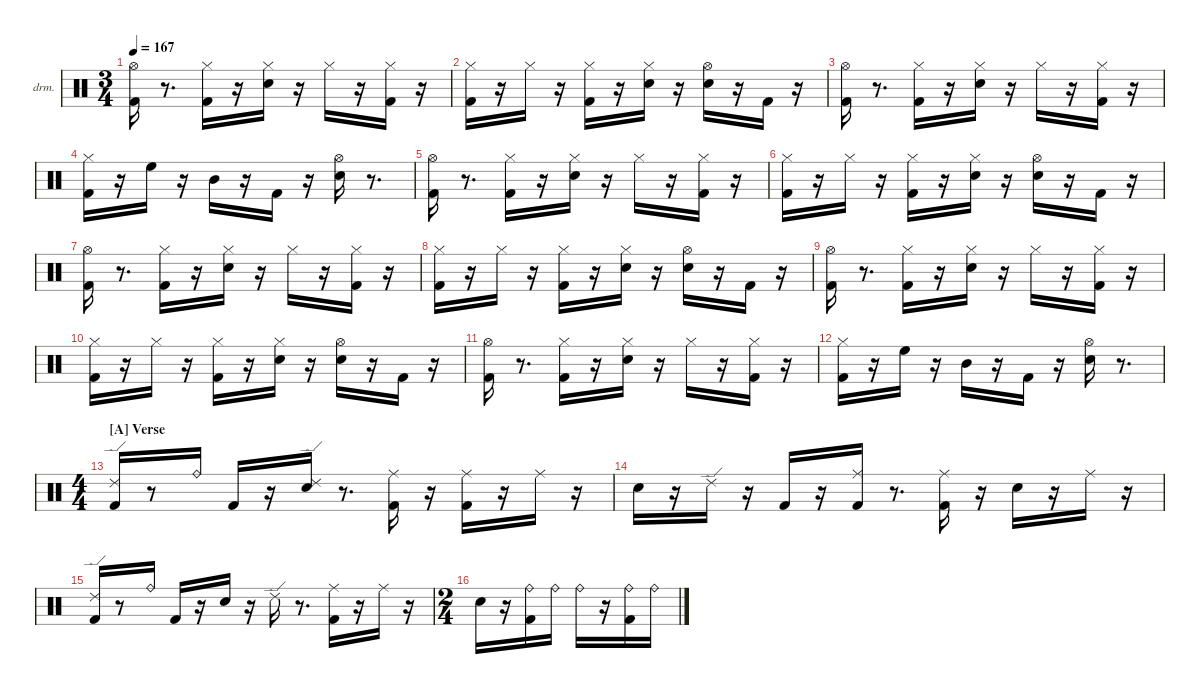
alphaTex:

\hideDynamics
\bracketExtendMode nobrackets
\firstSystemTrackNameOrientation horizontal
\otherSystemsTrackNameOrientation horizontal
\track ("Drums" "drm.") {instrument percussion}
\staff {score}
\articulation defaults
\ts (3 4)
\tempo 167
\clef neutral
\ks aminor
("Kick (hit) 2" "Hi-Hat (open)"{acc #}).16{dy ff beam Down} r.8{d beam Down} ("Kick (hit) 2" "Hi-Hat (closed)"{acc #}).16{dy f beam Down} r.16{beam Down} ("Snare (hit) 2" "Hi-Hat (closed)"{acc #}).16{dy ff beam Down} r.16{beam Down} "Hi-Hat (closed)"{acc #}.16{beam Down} r.16{beam Down} ("Kick (hit) 2" "Hi-Hat (closed)"{acc #}).16{dy mf beam Down} r.16{beam Down} |
("Kick (hit) 2" "Hi-Hat (closed)"{acc #}).16{dy fff beam Down} r.16{beam Down} "Hi-Hat (closed)"{acc #}.16{dy p beam Down} r.16{beam Down} ("Kick (hit) 2" "Hi-Hat (closed)"{acc #}).16{dy ff beam Down} r.16{beam Down} ("Snare (hit) 2" "Hi-Hat (closed)"{acc #}).16{beam Down} r.16{beam Down} ("Snare (hit) 2" "Hi-Hat (open)"{acc #}).16{dy ppp beam Down} r.16{beam Down} "Kick (hit) 2".16{dy ff beam Up} r.16{beam Up} |
("Kick (hit) 2" "Hi-Hat (open)"{acc #}).16{beam Down} r.8{d beam Down} ("Kick (hit) 2" "Hi-Hat (closed)"{acc #}).16{dy f beam Down} r.16{beam Down} ("Snare (hit) 2" "Hi-Hat (closed)"{acc #}).16{dy ff beam Down} r.16{beam Down} "Hi-Hat (closed)"{acc #}.16{beam Down} r.16{beam Down} ("Kick (hit) 2" "Hi-Hat (closed)"{acc #}).16{dy mf beam Down} r.16{beam Down} |
("Kick (hit) 2" "Hi-Hat (closed)"{acc #}).16{dy fff beam Down} r.16{beam Down} "High Floor Tom (hit)".16{dy ff beam Down} r.16{beam Down} "Mid Tom (hit)".16{beam Down} r.16{beam Down} "Kick (hit) 2".16{beam Up} r.16{beam Up} ("Snare (hit) 2" "Hi-Hat (open)"{acc #}).16{beam Down} r.8{d beam Down} |
("Kick (hit) 2" "Hi-Hat (open)"{acc #}).16{beam Down} r.8{d beam Down} ("Kick (hit) 2" "Hi-Hat (closed)"{acc #}).16{dy f beam Down} r.16{beam Down} ("Snare (hit) 2" "Hi-Hat (closed)"{acc #}).16{dy ff beam Down} r.16{beam Down} "Hi-Hat (closed)"{acc #}.16{beam Down} r.16{beam Down} ("Kick (hit) 2" "Hi-Hat (closed)"{acc #}).16{dy mf beam Down} r.16{beam Down} |
("Kick (hit) 2" "Hi-Hat (closed)"{acc #}).16{dy fff beam Down} r.16{beam Down} "Hi-Hat (closed)"{acc #}.16{dy p beam Down} r.16{beam Down} ("Kick (hit) 2" "Hi-Hat (closed)"{acc #}).16{dy ff beam Down} r.16{beam Down} ("Snare (hit) 2" "Hi-Hat (closed)"{acc #}).16{beam Down} r.16{beam Down} ("Snare (hit) 2" "Hi-Hat (open)"{acc #}).16{dy ppp beam Down} r.16{beam Down} "Kick (hit) 2".16{dy ff beam Up} r.16{beam Up} |
("Kick (hit) 2" "Hi-Hat (open)"{acc #}).16{beam Down} r.8{d beam Down} ("Kick (hit) 2" "Hi-Hat (closed)"{acc #}).16{dy f beam Down} r.16{beam Down} ("Snare (hit) 2" "Hi-Hat (closed)"{acc #}).16{dy ff beam Down} r.16{beam Down} "Hi-Hat (closed)"{acc #}.16{beam Down} r.16{beam Down} ("Kick (hit) 2" "Hi-Hat (closed)"{acc #}).16{dy mf beam Down} r.16{beam Down} |
("Kick (hit) 2" "Hi-Hat (closed)"{acc #}).16{dy fff beam Down} r.16{beam Down} "Hi-Hat (closed)"{acc #}.16{dy p beam Down} r.16{beam Down} ("Kick (hit) 2" "Hi-Hat (closed)"{acc #}).16{dy ff beam Down} r.16{beam Down} ("Snare (hit) 2" "Hi-Hat (closed)"{acc #}).16{beam Down} r.16{beam Down} ("Snare (hit) 2" "Hi-Hat (open)"{acc #}).16{dy ppp beam Down} r.16{beam Down} "Kick (hit) 2".16{dy ff beam Up} r.16{beam Up} |
("Kick (hit) 2" "Hi-Hat (open)"{acc #}).16{beam Down} r.8{d beam Down} ("Kick (hit) 2" "Hi-Hat (closed)"{acc #}).16{dy f beam Down} r.16{beam Down} ("Snare (hit) 2" "Hi-Hat (closed)"{acc #}).16{dy ff beam Down} r.16{beam Down} "Hi-Hat (closed)"{acc #}.16{beam Down} r.16{beam Down} ("Kick (hit) 2" "Hi-Hat (closed)"{acc #}).16{dy mf beam Down} r.16{beam Down} |
("Kick (hit) 2" "Hi-Hat (closed)"{acc #}).16{dy fff beam Down} r.16{beam Down} "Hi-Hat (closed)"{acc #}.16{dy p beam Down} r.16{beam Down} ("Kick (hit) 2" "Hi-Hat (closed)"{acc #}).16{dy ff beam Down} r.16{beam Down} ("Snare (hit) 2" "Hi-Hat (closed)"{acc #}).16{beam Down} r.16{beam Down} ("Snare (hit) 2" "Hi-Hat (open)"{acc #}).16{dy ppp beam Down} r.16{beam Down} "Kick (hit) 2".16{dy ff beam Up} r.16{beam Up} |
("Kick (hit) 2" "Hi-Hat (open)"{acc #}).16{beam Down} r.8{d beam Down} ("Kick (hit) 2" "Hi-Hat (closed)"{acc #}).16{dy f beam Down} r.16{beam Down} ("Snare (hit) 2" "Hi-Hat (closed)"{acc #}).16{dy ff beam Down} r.16{beam Down} "Hi-Hat (closed)"{acc #}.16{beam Down} r.16{beam Down} ("Kick (hit) 2" "Hi-Hat (closed)"{acc #}).16{dy mf beam Down} r.16{beam Down} |
("Kick (hit) 2" "Hi-Hat (closed)"{acc #}).16{dy fff beam Down} r.16{beam Down} "High Floor Tom (hit)".16{dy ff beam Down} r.16{beam Down} "Mid Tom (hit)".16{beam Down} r.16{beam Down} "Kick (hit) 2".16{beam Up} r.16{beam Up} ("Snare (hit) 2" "Hi-Hat (open)"{acc #}).16{beam Down} r.8{d beam Down} |
\ts (4 4)
\section ("A" "Verse")
("Kick (hit) 2" "Ride (edge) 2").16{beam Up} r.8{beam Up} "Ride (bell)".16{dy mf beam Down} "Kick (hit) 2".16{dy ff beam Up} r.16{beam Up} ("Snare (hit) 2" "Ride (edge) 2").16{beam Down} r.8{d beam Down} ("Kick (hit) 2" "Ride (middle)"{acc #}).16{dy mf beam Down} r.16{beam Down} ("Kick (hit) 2" "Ride (middle)"{acc #}).16{dy ff beam Down} r.16{beam Down} "Ride (middle)"{acc #}.16{dy mp beam Down} r.16{beam Down} |
"Snare (hit) 2".16{dy ff beam Down} r.16{beam Down} "Ride (edge) 2".16{dy f beam Down} r.16{beam Down} "Kick (hit) 2".16{dy mf beam Up} r.16{beam Up} ("Kick (hit) 2" "Ride (middle)"{acc #}).16{dy ff beam Down} r.8{d beam Down} ("Kick (hit) 2" "Ride (middle)"{acc #}).16{beam Down} r.16{beam Down} "Snare (hit) 2".16{beam Down} r.16{beam Down} "Ride (middle)"{acc #}.16{beam Down} r.16{beam Down} |
("Kick (hit) 2" "Ride (edge) 2").16{beam Up} r.8{beam Up} "Ride (bell)".16{dy mf beam Down} "Kick (hit) 2".16{dy ff beam Up} r.16{beam Up} "Snare (hit) 2".16{beam Down} r.16{beam Down} "Ride (edge) 2".16{beam Down} r.8{d beam Down} ("Kick (hit) 2" "Ride (middle)"{acc #}).16{beam Down} r.16{beam Down} "Ride (middle)"{acc #}.16{dy mp beam Down} r.16{beam Down} |
\ts (2 4)
"Snare (hit) 2".16{dy ff beam Down} r.16{beam Down} ("Kick (hit) 2" "Ride (bell)").16{dy f beam Down} "Ride (bell)".16{dy mp beam Down} "Ride (bell)".16{dy mf beam Down} r.16{beam Down} ("Kick (hit) 2" "Ride (bell)").16{dy f beam Down} "Ride (bell)".16{dy mp beam Down}
